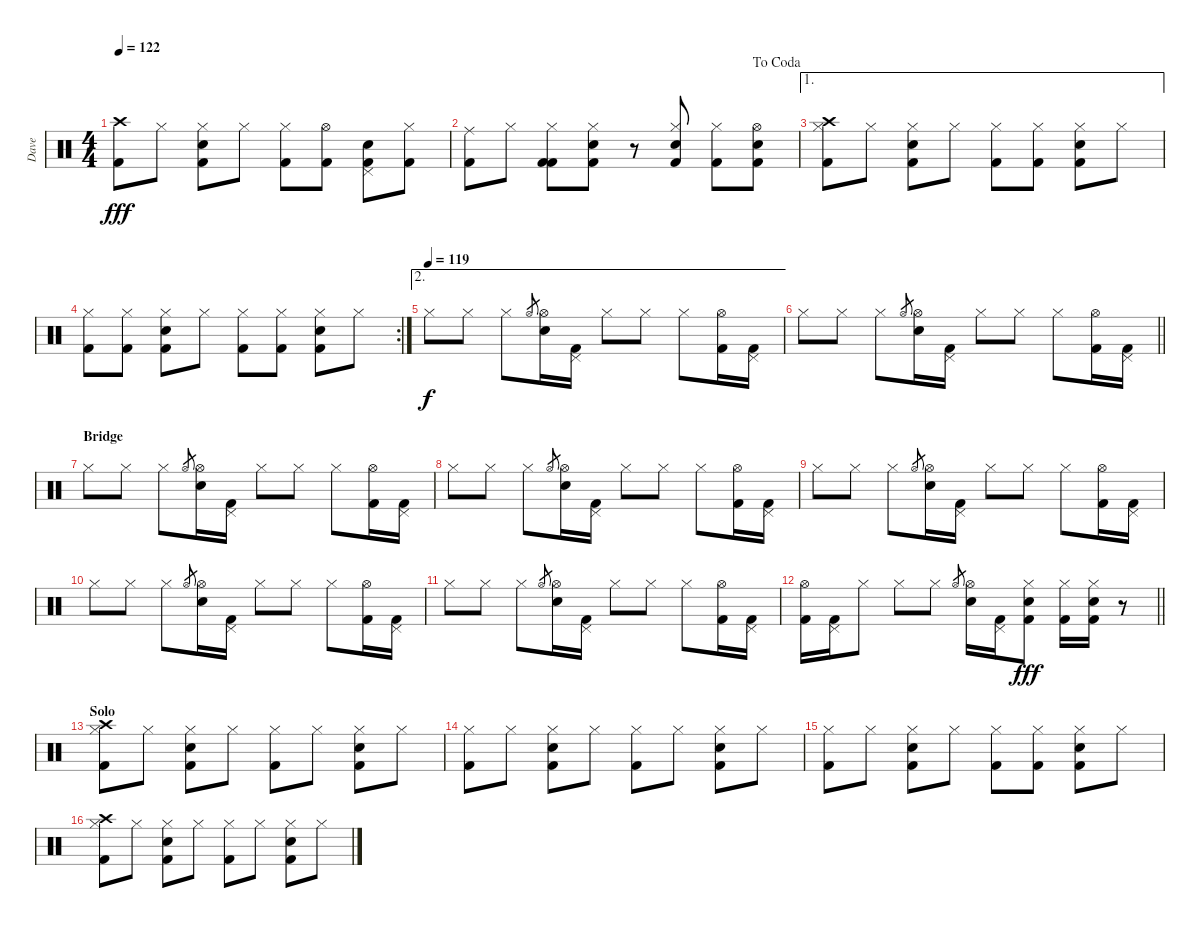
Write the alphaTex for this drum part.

\track ("Dave" "Dave") {instrument percussion}
\staff {score}
\articulation defaults
\ts (4 4)
\tempo 122
\clef neutral
\ks c
("Crash high (hit)" "Kick (hit) 2").8{dy fff} "Hi-Hat (closed)".8 ("Hi-Hat (closed)" "Snare (hit) 2" "Kick (hit) 2").8 "Hi-Hat (closed)".8 ("Hi-Hat (closed)" "Kick (hit) 2").8 ("Hi-Hat (open)" "Kick (hit) 2").8 ("Pedal Hi-Hat (hit)" "Snare (hit) 2" "Kick (hit) 2").8 ("Hi-Hat (closed)" "Kick (hit) 2").8 |
\jump dacoda
("Ride (middle)" "Kick (hit) 2").8 "Hi-Hat (closed)".8 ("Hi-Hat (closed)" "Kick (hit) 2" "Kick (hit) 2").8 ("Hi-Hat (closed)" "Snare (hit) 2" "Kick (hit) 2").8 r.8 ("Hi-Hat (closed)" "Snare (hit) 2" "Kick (hit) 2").8 ("Hi-Hat (closed)" "Kick (hit) 2").8 ("Hi-Hat (open)" "Snare (hit) 2" "Kick (hit) 2").8 |
\ae 1
("Crash high (hit)" "Hi-Hat (closed)" "Kick (hit) 2").8 "Hi-Hat (closed)".8 ("Hi-Hat (closed)" "Snare (hit) 2" "Kick (hit) 2").8 "Hi-Hat (closed)".8 ("Hi-Hat (closed)" "Kick (hit) 2").8 ("Hi-Hat (closed)" "Kick (hit) 2").8 ("Hi-Hat (closed)" "Snare (hit) 2" "Kick (hit) 2").8 "Hi-Hat (closed)".8 |
\rc 2
("Hi-Hat (closed)" "Kick (hit) 2").8 ("Hi-Hat (closed)" "Kick (hit) 2").8 ("Hi-Hat (closed)" "Snare (hit) 2" "Kick (hit) 2").8 "Hi-Hat (closed)".8 ("Hi-Hat (closed)" "Kick (hit) 2").8 ("Hi-Hat (closed)" "Kick (hit) 2").8 ("Hi-Hat (closed)" "Snare (hit) 2" "Kick (hit) 2").8 "Hi-Hat (closed)".8 |
\ae 2
\tempo (119)
"Hi-Hat (closed)".8{dy f} "Hi-Hat (closed)".8 "Hi-Hat (closed)".8 "Hi-Hat (open)".8{gr} ("Hi-Hat (open)" "Electric Snare (hit)").16 ("Pedal Hi-Hat (hit)" "Kick (hit) 2").16 "Hi-Hat (closed)".8 "Hi-Hat (closed)".8 "Hi-Hat (closed)".8 ("Hi-Hat (open)" "Kick (hit) 2").16 ("Pedal Hi-Hat (hit)" "Kick (hit) 2").16 |
\barLineRight lightlight "Hi-Hat (closed)".8 "Hi-Hat (closed)".8 "Hi-Hat (closed)".8 "Hi-Hat (open)".8{gr}
("Hi-Hat (open)" "Electric Snare (hit)").16 ("Pedal Hi-Hat (hit)" "Kick (hit) 2").16 "Hi-Hat (closed)".8 "Hi-Hat (closed)".8 "Hi-Hat (closed)".8 ("Hi-Hat (open)" "Kick (hit) 2").16 ("Pedal Hi-Hat (hit)" "Kick (hit) 2").16 |
\section ("" "Bridge")
"Hi-Hat (closed)".8 "Hi-Hat (closed)".8 "Hi-Hat (closed)".8 "Hi-Hat (open)".8{gr} ("Hi-Hat (open)" "Electric Snare (hit)").16 ("Pedal Hi-Hat (hit)" "Kick (hit) 2").16 "Hi-Hat (closed)".8 "Hi-Hat (closed)".8 "Hi-Hat (closed)".8 ("Hi-Hat (open)" "Kick (hit) 2").16 ("Pedal Hi-Hat (hit)" "Kick (hit) 2").16 |
"Hi-Hat (closed)".8 "Hi-Hat (closed)".8 "Hi-Hat (closed)".8 "Hi-Hat (open)".8{gr} ("Hi-Hat (open)" "Electric Snare (hit)").16 ("Pedal Hi-Hat (hit)" "Kick (hit) 2").16 "Hi-Hat (closed)".8 "Hi-Hat (closed)".8 "Hi-Hat (closed)".8 ("Hi-Hat (open)" "Kick (hit) 2").16 ("Pedal Hi-Hat (hit)" "Kick (hit) 2").16 |
"Hi-Hat (closed)".8 "Hi-Hat (closed)".8 "Hi-Hat (closed)".8 "Hi-Hat (open)".8{gr} ("Hi-Hat (open)" "Electric Snare (hit)").16 ("Pedal Hi-Hat (hit)" "Kick (hit) 2").16 "Hi-Hat (closed)".8 "Hi-Hat (closed)".8 "Hi-Hat (closed)".8 ("Hi-Hat (open)" "Kick (hit) 2").16 ("Pedal Hi-Hat (hit)" "Kick (hit) 2").16 |
"Hi-Hat (closed)".8 "Hi-Hat (closed)".8 "Hi-Hat (closed)".8 "Hi-Hat (open)".8{gr} ("Hi-Hat (open)" "Electric Snare (hit)").16 ("Pedal Hi-Hat (hit)" "Kick (hit) 2").16 "Hi-Hat (closed)".8 "Hi-Hat (closed)".8 "Hi-Hat (closed)".8 ("Hi-Hat (open)" "Kick (hit) 2").16 ("Pedal Hi-Hat (hit)" "Kick (hit) 2").16 |
"Hi-Hat (closed)".8 "Hi-Hat (closed)".8 "Hi-Hat (closed)".8 "Hi-Hat (open)".8{gr} ("Hi-Hat (open)" "Electric Snare (hit)").16 ("Pedal Hi-Hat (hit)" "Kick (hit) 2").16 "Hi-Hat (closed)".8 "Hi-Hat (closed)".8 "Hi-Hat (closed)".8 ("Hi-Hat (open)" "Kick (hit) 2").16 ("Pedal Hi-Hat (hit)" "Kick (hit) 2").16 |
\barLineRight lightlight
("Hi-Hat (open)" "Kick (hit) 2").16 ("Pedal Hi-Hat (hit)" "Kick (hit) 2").16 "Hi-Hat (closed)".8 "Hi-Hat (closed)".8 "Hi-Hat (closed)".8 "Hi-Hat (open)".8{gr} ("Hi-Hat (open)" "Electric Snare (hit)").16 ("Pedal Hi-Hat (hit)" "Kick (hit) 2").16 ("Hi-Hat (closed)" "Snare (hit) 2" "Kick (hit) 2").8{dy fff} ("Hi-Hat (closed)" "Kick (hit) 2").16 ("Hi-Hat (closed)" "Snare (hit) 2" "Kick (hit) 2").16 r.8 |
\section ("" "Solo")
("Crash high (hit)" "Hi-Hat (closed)" "Kick (hit) 2").8 "Hi-Hat (closed)".8 ("Hi-Hat (closed)" "Snare (hit) 2" "Kick (hit) 2").8 "Hi-Hat (closed)".8 ("Hi-Hat (closed)" "Kick (hit) 2").8 "Hi-Hat (closed)".8 ("Hi-Hat (closed)" "Snare (hit) 2" "Kick (hit) 2").8 "Hi-Hat (closed)".8 |
("Hi-Hat (closed)" "Kick (hit) 2").8 "Hi-Hat (closed)".8 ("Hi-Hat (closed)" "Snare (hit) 2" "Kick (hit) 2").8 "Hi-Hat (closed)".8 ("Hi-Hat (closed)" "Kick (hit) 2").8 "Hi-Hat (closed)".8 ("Hi-Hat (closed)" "Snare (hit) 2" "Kick (hit) 2").8 "Hi-Hat (closed)".8 |
("Hi-Hat (closed)" "Kick (hit) 2").8 "Hi-Hat (closed)".8 ("Hi-Hat (closed)" "Snare (hit) 2" "Kick (hit) 2").8 "Hi-Hat (closed)".8 ("Hi-Hat (closed)" "Kick (hit) 2").8 ("Hi-Hat (closed)" "Kick (hit) 2").8 ("Hi-Hat (closed)" "Snare (hit) 2" "Kick (hit) 2").8 "Hi-Hat (closed)".8 |
("Crash high (hit)" "Hi-Hat (closed)" "Kick (hit) 2").8 "Hi-Hat (closed)".8 ("Hi-Hat (closed)" "Snare (hit) 2" "Kick (hit) 2").8 "Hi-Hat (closed)".8 ("Hi-Hat (closed)" "Kick (hit) 2").8 "Hi-Hat (closed)".8 ("Hi-Hat (closed)" "Snare (hit) 2" "Kick (hit) 2").8 "Hi-Hat (closed)".8
